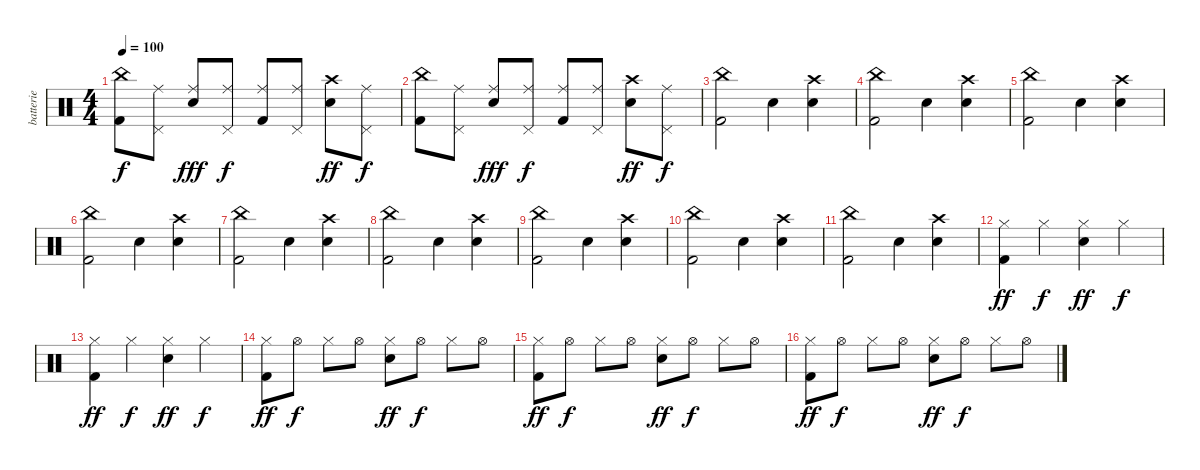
\track ("batterie" "batterie") {instrument percussion}
\staff {score}
\articulation defaults
\ts (4 4)
\tempo 100
\clef neutral
\ks c
("China (hit)" "Kick (hit) 2").8{dy f} ("Ride (middle)" "Pedal Hi-Hat (hit)").8 ("Ride (middle)" "Snare (hit) 2").8{dy fff} ("Ride (middle)" "Pedal Hi-Hat (hit)").8{dy f} ("Ride (middle)" "Kick (hit) 2").8 ("Ride (middle)" "Pedal Hi-Hat (hit)").8 ("Crash high (hit)" "Snare (hit) 2").8{dy ff} ("Ride (middle)" "Pedal Hi-Hat (hit)").8{dy f} |
("China (hit)" "Kick (hit) 2").8 ("Ride (middle)" "Pedal Hi-Hat (hit)").8 ("Ride (middle)" "Snare (hit) 2").8{dy fff} ("Ride (middle)" "Pedal Hi-Hat (hit)").8{dy f} ("Ride (middle)" "Kick (hit) 2").8 ("Ride (middle)" "Pedal Hi-Hat (hit)").8 ("Crash high (hit)" "Snare (hit) 2").8{dy ff} ("Ride (middle)" "Pedal Hi-Hat (hit)").8{dy f} |
("China (hit)" "Kick (hit) 2").2 "Snare (hit)".4 ("Crash high (hit)" "Snare (hit) 2").4 |
("China (hit)" "Kick (hit) 2").2 "Snare (hit)".4 ("Crash high (hit)" "Snare (hit) 2").4 |
("China (hit)" "Kick (hit) 2").2 "Snare (hit)".4 ("Crash high (hit)" "Snare (hit) 2").4 |
("China (hit)" "Kick (hit) 2").2 "Snare (hit)".4 ("Crash high (hit)" "Snare (hit) 2").4 |
("China (hit)" "Kick (hit) 2").2 "Snare (hit)".4 ("Crash high (hit)" "Snare (hit) 2").4 |
("China (hit)" "Kick (hit) 2").2 "Snare (hit)".4 ("Crash high (hit)" "Snare (hit) 2").4 |
("China (hit)" "Kick (hit) 2").2 "Snare (hit)".4 ("Crash high (hit)" "Snare (hit) 2").4 |
("China (hit)" "Kick (hit) 2").2 "Snare (hit)".4 ("Crash high (hit)" "Snare (hit) 2").4 |
("China (hit)" "Kick (hit) 2").2 "Snare (hit)".4 ("Crash high (hit)" "Snare (hit) 2").4 |
("Hi-Hat (closed)" "Kick (hit) 2").4{dy ff} "Hi-Hat (closed)".4{dy f} ("Hi-Hat (closed)" "Snare (hit) 2").4{dy ff} "Hi-Hat (closed)".4{dy f} |
("Hi-Hat (closed)" "Kick (hit) 2").4{dy ff} "Hi-Hat (closed)".4{dy f} ("Hi-Hat (closed)" "Snare (hit) 2").4{dy ff} "Hi-Hat (closed)".4{dy f} |
("Hi-Hat (closed)" "Kick (hit) 2").8{dy ff} "Hi-Hat (open)".8{dy f} "Hi-Hat (closed)".8 "Hi-Hat (open)".8 ("Hi-Hat (closed)" "Snare (hit) 2").8{dy ff} "Hi-Hat (open)".8{dy f} "Hi-Hat (closed)".8 "Hi-Hat (open)".8 |
("Hi-Hat (closed)" "Kick (hit) 2").8{dy ff} "Hi-Hat (open)".8{dy f} "Hi-Hat (closed)".8 "Hi-Hat (open)".8 ("Hi-Hat (closed)" "Snare (hit) 2").8{dy ff} "Hi-Hat (open)".8{dy f} "Hi-Hat (closed)".8 "Hi-Hat (open)".8 |
("Hi-Hat (closed)" "Kick (hit) 2").8{dy ff} "Hi-Hat (open)".8{dy f} "Hi-Hat (closed)".8 "Hi-Hat (open)".8 ("Hi-Hat (closed)" "Snare (hit) 2").8{dy ff} "Hi-Hat (open)".8{dy f} "Hi-Hat (closed)".8 "Hi-Hat (open)".8
